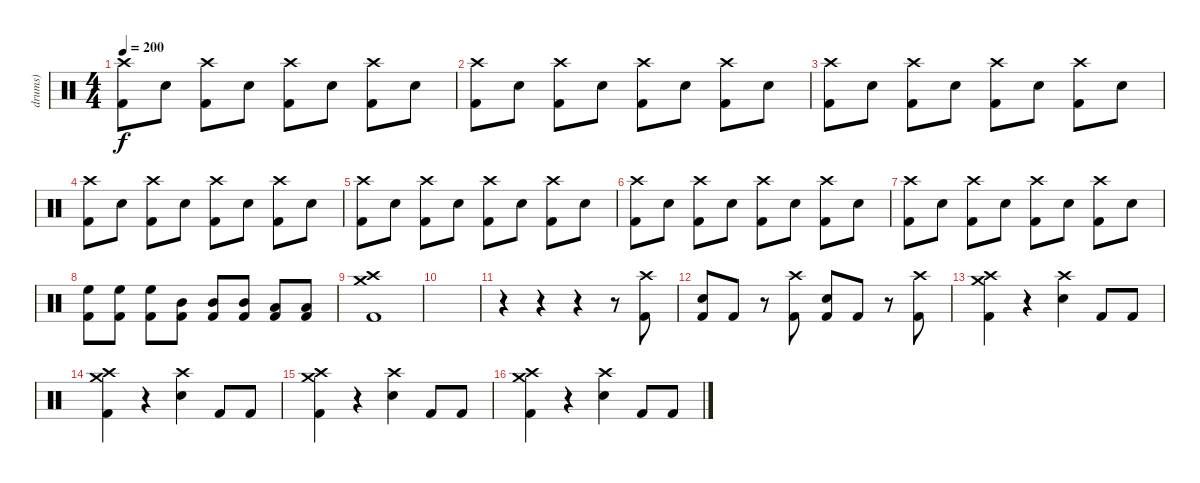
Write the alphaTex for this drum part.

\track ("drums)" "drums)") {instrument percussion}
\staff {score}
\articulation defaults
\ts (4 4)
\tempo 200
\clef neutral
\ks c
("Crash high (hit)" "Kick (hit) 2").8{dy f} "Electric Snare (hit)".8 ("Crash high (hit)" "Kick (hit) 2").8 "Electric Snare (hit)".8 ("Crash high (hit)" "Kick (hit) 2").8 "Electric Snare (hit)".8 ("Crash high (hit)" "Kick (hit) 2").8 "Electric Snare (hit)".8 |
("Crash high (hit)" "Kick (hit) 2").8 "Electric Snare (hit)".8 ("Crash high (hit)" "Kick (hit) 2").8 "Electric Snare (hit)".8 ("Crash high (hit)" "Kick (hit) 2").8 "Electric Snare (hit)".8 ("Crash high (hit)" "Kick (hit) 2").8 "Electric Snare (hit)".8 |
("Crash high (hit)" "Kick (hit) 2").8 "Electric Snare (hit)".8 ("Crash high (hit)" "Kick (hit) 2").8 "Electric Snare (hit)".8 ("Crash high (hit)" "Kick (hit) 2").8 "Electric Snare (hit)".8 ("Crash high (hit)" "Kick (hit) 2").8 "Electric Snare (hit)".8 |
("Crash high (hit)" "Kick (hit) 2").8 "Electric Snare (hit)".8 ("Crash high (hit)" "Kick (hit) 2").8 "Electric Snare (hit)".8 ("Crash high (hit)" "Kick (hit) 2").8 "Electric Snare (hit)".8 ("Crash high (hit)" "Kick (hit) 2").8 "Electric Snare (hit)".8 |
("Crash high (hit)" "Kick (hit) 2").8 "Electric Snare (hit)".8 ("Crash high (hit)" "Kick (hit) 2").8 "Electric Snare (hit)".8 ("Crash high (hit)" "Kick (hit) 2").8 "Electric Snare (hit)".8 ("Crash high (hit)" "Kick (hit) 2").8 "Electric Snare (hit)".8 |
("Crash high (hit)" "Kick (hit) 2").8 "Electric Snare (hit)".8 ("Crash high (hit)" "Kick (hit) 2").8 "Electric Snare (hit)".8 ("Crash high (hit)" "Kick (hit) 2").8 "Electric Snare (hit)".8 ("Crash high (hit)" "Kick (hit) 2").8 "Electric Snare (hit)".8 |
("Crash high (hit)" "Kick (hit) 2").8 "Electric Snare (hit)".8 ("Crash high (hit)" "Kick (hit) 2").8 "Electric Snare (hit)".8 ("Crash high (hit)" "Kick (hit) 2").8 "Electric Snare (hit)".8 ("Crash high (hit)" "Kick (hit) 2").8 "Electric Snare (hit)".8 |
("High Floor Tom (hit)" "Kick (hit) 2").8 ("High Floor Tom (hit)" "Kick (hit) 2").8 ("High Floor Tom (hit)" "Kick (hit) 2").8 ("Mid Tom (hit)" "Kick (hit) 2").8 ("Mid Tom (hit)" "Kick (hit) 2").8 ("Mid Tom (hit)" "Kick (hit) 2").8 ("Low Floor Tom (hit)" "Kick (hit) 2").8 ("Low Floor Tom (hit)" "Kick (hit) 2").8 |
("Crash high (hit)" "Crash medium (hit)" "Kick (hit) 2").1 |
|
r.4 r.4 r.4 r.8 ("Crash high (hit)" "Kick (hit) 2").8 |
("Electric Snare (hit)" "Kick (hit) 2").8 "Kick (hit) 2".8 r.8 ("Crash high (hit)" "Kick (hit) 2").8 ("Electric Snare (hit)" "Kick (hit) 2").8 "Kick (hit) 2".8 r.8 ("Crash high (hit)" "Kick (hit) 2").8 |
("Crash high (hit)" "Crash medium (hit)" "Kick (hit) 2").4 r.4 ("Crash high (hit)" "Electric Snare (hit)").4 "Kick (hit) 2".8 "Kick (hit) 2".8 |
("Crash high (hit)" "Crash medium (hit)" "Kick (hit) 2").4 r.4 ("Crash high (hit)" "Electric Snare (hit)").4 "Kick (hit) 2".8 "Kick (hit) 2".8 |
("Crash high (hit)" "Crash medium (hit)" "Kick (hit) 2").4 r.4 ("Crash high (hit)" "Electric Snare (hit)").4 "Kick (hit) 2".8 "Kick (hit) 2".8 |
("Crash high (hit)" "Crash medium (hit)" "Kick (hit) 2").4 r.4 ("Crash high (hit)" "Electric Snare (hit)").4 "Kick (hit) 2".8 "Kick (hit) 2".8
